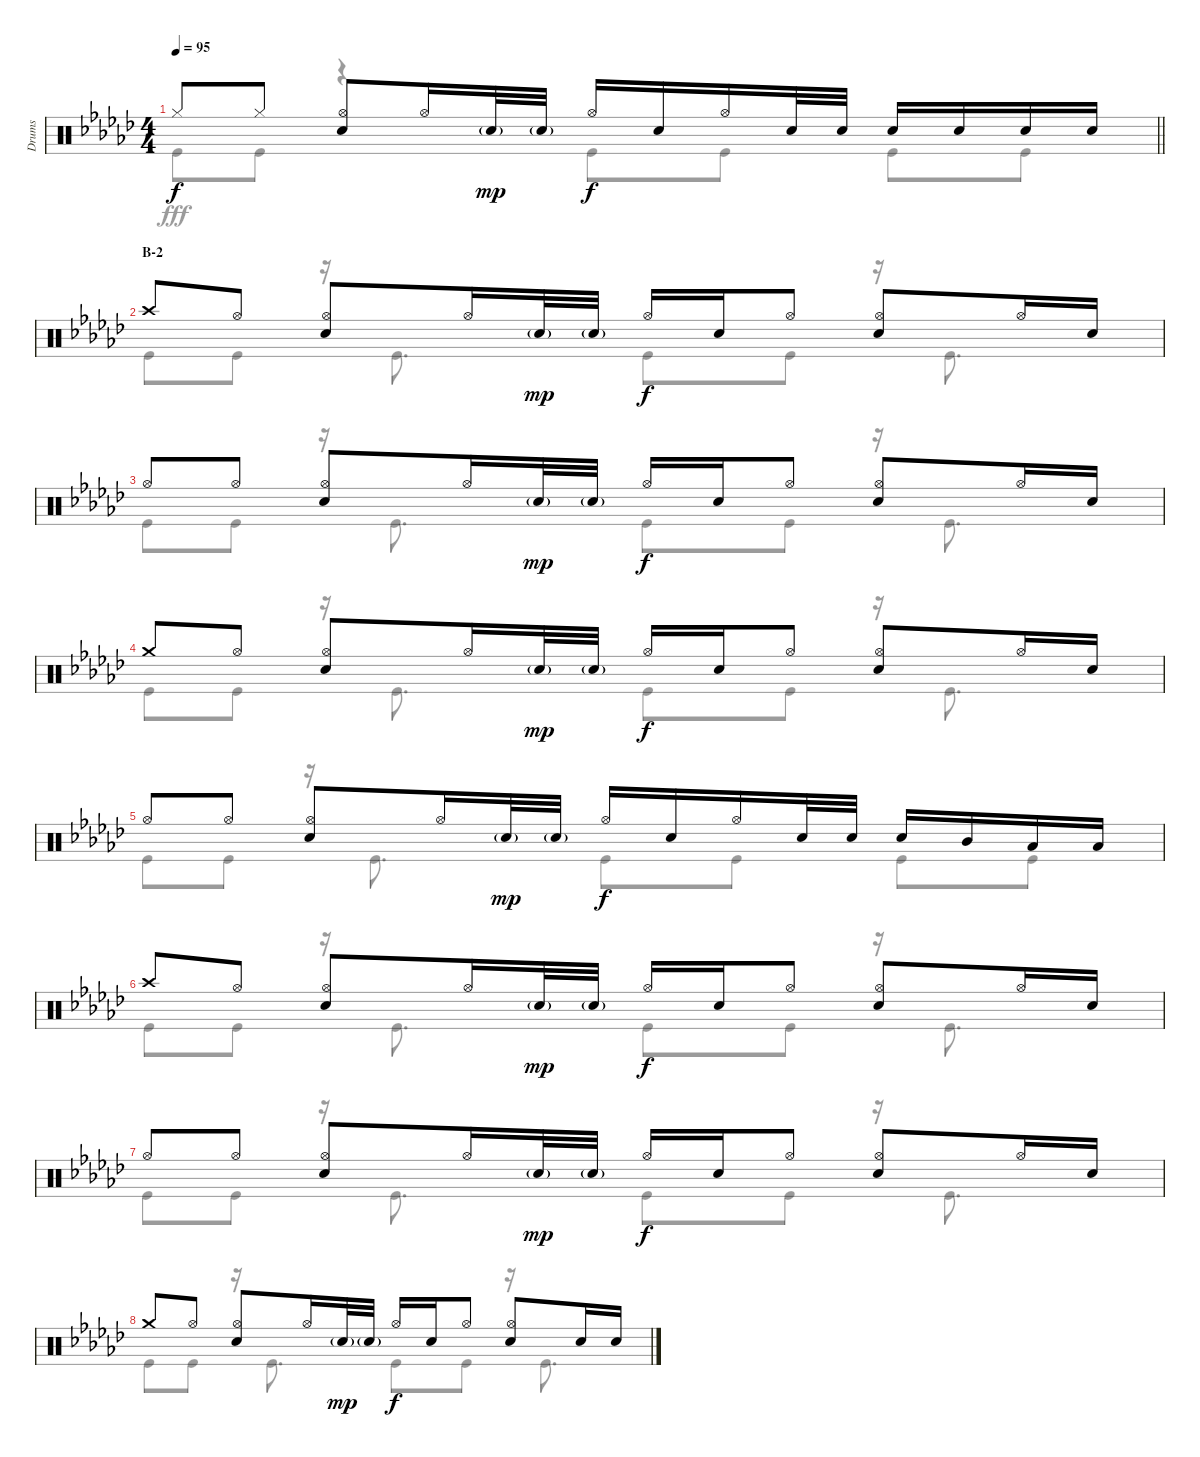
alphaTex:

\track ("Drums" "Drums") {instrument percussion}
\staff {score}
\articulation defaults
\voice
\ts (4 4)
\tempo 95
\clef neutral
\barLineRight lightlight
\ks gb "Hi-Hat (closed)".8{dy f} "Hi-Hat (closed)".8
("Hi-Hat (open)" "Snare (hit) 2").8 "Hi-Hat (open)".16 "Snare (hit) 2"{g}.32{dy mp} "Snare (hit) 2"{g}.32 "Hi-Hat (open)".16{dy f} "Snare (hit) 2".16 "Hi-Hat (open)".16 "Snare (hit) 2".32 "Snare (hit) 2".32 "Snare (hit) 2".16 "Snare (hit) 2".16 "Snare (hit) 2".16 "Snare (hit) 2".16 |
\section ("" "B-2")
"Crash high (hit)".8 "Hi-Hat (open)".8 ("Hi-Hat (open)" "Snare (hit) 2").8 "Hi-Hat (open)".16 "Snare (hit) 2"{g}.32{dy mp} "Snare (hit) 2"{g}.32 "Hi-Hat (open)".16{dy f} "Snare (hit) 2".16 "Hi-Hat (open)".8 ("Hi-Hat (open)" "Snare (hit) 2").8 "Hi-Hat (open)".16 "Snare (hit) 2".16 |
"Hi-Hat (open)".8 "Hi-Hat (open)".8 ("Hi-Hat (open)" "Snare (hit) 2").8 "Hi-Hat (open)".16 "Snare (hit) 2"{g}.32{dy mp} "Snare (hit) 2"{g}.32 "Hi-Hat (open)".16{dy f} "Snare (hit) 2".16 "Hi-Hat (open)".8 ("Hi-Hat (open)" "Snare (hit) 2").8 "Hi-Hat (open)".16 "Snare (hit) 2".16 |
"Crash medium (hit)".8 "Hi-Hat (open)".8 ("Hi-Hat (open)" "Snare (hit) 2").8 "Hi-Hat (open)".16 "Snare (hit) 2"{g}.32{dy mp} "Snare (hit) 2"{g}.32 "Hi-Hat (open)".16{dy f} "Snare (hit) 2".16 "Hi-Hat (open)".8 ("Hi-Hat (open)" "Snare (hit) 2").8 "Hi-Hat (open)".16 "Snare (hit) 2".16 |
"Hi-Hat (open)".8 "Hi-Hat (open)".8 ("Hi-Hat (open)" "Snare (hit) 2").8 "Hi-Hat (open)".16 "Snare (hit) 2"{g}.32{dy mp} "Snare (hit) 2"{g}.32 "Hi-Hat (open)".16{dy f} "Snare (hit) 2".16 "Hi-Hat (open)".16 "Snare (hit) 2".32 "Snare (hit) 2".32 "Snare (hit) 2".16 "Mid Tom (hit)".16 "Low Tom (hit)".16 "Low Tom (hit)".16 |
"Crash high (hit)".8 "Hi-Hat (open)".8 ("Hi-Hat (open)" "Snare (hit) 2").8 "Hi-Hat (open)".16 "Snare (hit) 2"{g}.32{dy mp} "Snare (hit) 2"{g}.32 "Hi-Hat (open)".16{dy f} "Snare (hit) 2".16 "Hi-Hat (open)".8 ("Hi-Hat (open)" "Snare (hit) 2").8 "Hi-Hat (open)".16 "Snare (hit) 2".16 |
"Hi-Hat (open)".8 "Hi-Hat (open)".8 ("Hi-Hat (open)" "Snare (hit) 2").8 "Hi-Hat (open)".16 "Snare (hit) 2"{g}.32{dy mp} "Snare (hit) 2"{g}.32 "Hi-Hat (open)".16{dy f} "Snare (hit) 2".16 "Hi-Hat (open)".8 ("Hi-Hat (open)" "Snare (hit) 2").8 "Hi-Hat (open)".16 "Snare (hit) 2".16 |
"Crash medium (hit)".8 "Hi-Hat (open)".8 ("Hi-Hat (open)" "Snare (hit) 2").8 "Hi-Hat (open)".16 "Snare (hit) 2"{g}.32{dy mp} "Snare (hit) 2"{g}.32 "Hi-Hat (open)".16{dy f} "Snare (hit) 2".16 "Hi-Hat (open)".8 ("Hi-Hat (open)" "Snare (hit) 2").8 "Snare (hit) 2".16 "Snare (hit) 2".16
\voice
\clef neutral
\ottava regular
\simile none
\barLineRight lightlight
\ks gb "Kick (hit)".8{dy fff} "Kick (hit)".8
r.4 "Kick (hit)".8 "Kick (hit)".8 "Kick (hit)".8 "Kick (hit)".8 |
"Kick (hit)".8 "Kick (hit)".8 r.16 "Kick (hit)".8{d} "Kick (hit)".8 "Kick (hit)".8 r.16 "Kick (hit)".8{d} |
"Kick (hit)".8 "Kick (hit)".8 r.16 "Kick (hit)".8{d} "Kick (hit)".8 "Kick (hit)".8 r.16 "Kick (hit)".8{d} |
"Kick (hit)".8 "Kick (hit)".8 r.16 "Kick (hit)".8{d} "Kick (hit)".8 "Kick (hit)".8 r.16 "Kick (hit)".8{d} |
"Kick (hit)".8 "Kick (hit)".8 r.16 "Kick (hit)".8{d} "Kick (hit)".8 "Kick (hit)".8 "Kick (hit)".8 "Kick (hit)".8 |
"Kick (hit)".8 "Kick (hit)".8 r.16 "Kick (hit)".8{d} "Kick (hit)".8 "Kick (hit)".8 r.16 "Kick (hit)".8{d} |
"Kick (hit)".8 "Kick (hit)".8 r.16 "Kick (hit)".8{d} "Kick (hit)".8 "Kick (hit)".8 r.16 "Kick (hit)".8{d} |
"Kick (hit)".8 "Kick (hit)".8 r.16 "Kick (hit)".8{d} "Kick (hit)".8 "Kick (hit)".8 r.16 "Kick (hit)".8{d}
